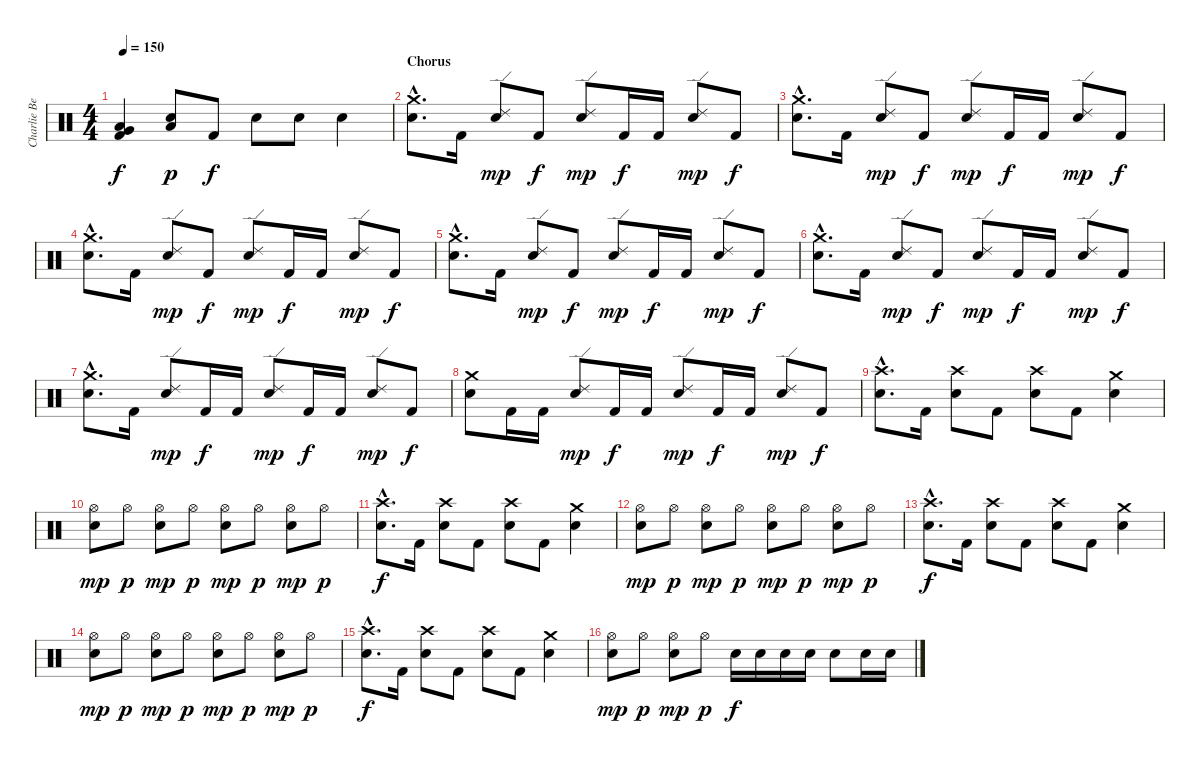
\track ("Charlie Benante" "Charlie Be") {instrument percussion}
\staff {score}
\articulation defaults
\ts (4 4)
\tempo 150
\clef neutral
\ks c
("Kick (hit) 2" "Low Tom (hit)" "Very Low Tom (hit)").4{dy f} ("Snare (hit) 2" "Low Tom (hit)").8{dy p} "Kick (hit) 2".8{dy f} "Snare (hit) 2".8 "Snare (hit) 2".8 "Snare (hit) 2".4 |
\section ("" "Chorus")
("Crash medium (hit)"{hac} "Snare (hit) 2"{hac}).8{d} "Kick (hit) 2".16 ("Ride (edge) 2" "Snare (hit) 2").8{dy mp} "Kick (hit) 2".8{dy f} ("Ride (edge) 2" "Snare (hit) 2").8{dy mp} "Kick (hit) 2".16{dy f} "Kick (hit) 2".16 ("Ride (edge) 2" "Snare (hit) 2").8{dy mp} "Kick (hit) 2".8{dy f} |
("Crash medium (hit)"{hac} "Snare (hit) 2"{hac}).8{d} "Kick (hit) 2".16 ("Ride (edge) 2" "Snare (hit) 2").8{dy mp} "Kick (hit) 2".8{dy f} ("Ride (edge) 2" "Snare (hit) 2").8{dy mp} "Kick (hit) 2".16{dy f} "Kick (hit) 2".16 ("Ride (edge) 2" "Snare (hit) 2").8{dy mp} "Kick (hit) 2".8{dy f} |
("Crash medium (hit)"{hac} "Snare (hit) 2"{hac}).8{d} "Kick (hit) 2".16 ("Ride (edge) 2" "Snare (hit) 2").8{dy mp} "Kick (hit) 2".8{dy f} ("Ride (edge) 2" "Snare (hit) 2").8{dy mp} "Kick (hit) 2".16{dy f} "Kick (hit) 2".16 ("Ride (edge) 2" "Snare (hit) 2").8{dy mp} "Kick (hit) 2".8{dy f} |
("Crash medium (hit)"{hac} "Snare (hit) 2"{hac}).8{d} "Kick (hit) 2".16 ("Ride (edge) 2" "Snare (hit) 2").8{dy mp} "Kick (hit) 2".8{dy f} ("Ride (edge) 2" "Snare (hit) 2").8{dy mp} "Kick (hit) 2".16{dy f} "Kick (hit) 2".16 ("Ride (edge) 2" "Snare (hit) 2").8{dy mp} "Kick (hit) 2".8{dy f} |
("Crash medium (hit)"{hac} "Snare (hit) 2"{hac}).8{d} "Kick (hit) 2".16 ("Ride (edge) 2" "Snare (hit) 2").8{dy mp} "Kick (hit) 2".8{dy f} ("Ride (edge) 2" "Snare (hit) 2").8{dy mp} "Kick (hit) 2".16{dy f} "Kick (hit) 2".16 ("Ride (edge) 2" "Snare (hit) 2").8{dy mp} "Kick (hit) 2".8{dy f} |
("Crash medium (hit)"{hac} "Snare (hit) 2"{hac}).8{d} "Kick (hit) 2".16 ("Ride (edge) 2" "Snare (hit) 2").8{dy mp} "Kick (hit) 2".16{dy f} "Kick (hit) 2".16 ("Ride (edge) 2" "Snare (hit) 2").8{dy mp} "Kick (hit) 2".16{dy f} "Kick (hit) 2".16 ("Ride (edge) 2" "Snare (hit) 2").8{dy mp} "Kick (hit) 2".8{dy f} |
("Crash medium (hit)" "Snare (hit) 2").8 "Kick (hit) 2".16 "Kick (hit) 2".16 ("Ride (edge) 2" "Snare (hit) 2").8{dy mp} "Kick (hit) 2".16{dy f} "Kick (hit) 2".16 ("Ride (edge) 2" "Snare (hit) 2").8{dy mp} "Kick (hit) 2".16{dy f} "Kick (hit) 2".16 ("Ride (edge) 2" "Snare (hit) 2").8{dy mp} "Kick (hit) 2".8{dy f} |
("Crash high (hit)"{hac} "Snare (hit) 2"{hac}).8{d} "Kick (hit) 2".16 ("Crash high (hit)" "Snare (hit) 2").8 "Kick (hit) 2".8 ("Crash high (hit)" "Snare (hit) 2").8 "Kick (hit) 2".8 ("Crash medium (hit)" "Snare (hit) 2").4 |
("Hi-Hat (open)" "Snare (hit) 2").8{dy mp} "Hi-Hat (open)".8{dy p} ("Hi-Hat (open)" "Snare (hit) 2").8{dy mp} "Hi-Hat (open)".8{dy p} ("Hi-Hat (open)" "Snare (hit) 2").8{dy mp} "Hi-Hat (open)".8{dy p} ("Hi-Hat (open)" "Snare (hit) 2").8{dy mp} "Hi-Hat (open)".8{dy p} |
("Crash high (hit)"{hac} "Snare (hit) 2"{hac}).8{d dy f} "Kick (hit) 2".16 ("Crash high (hit)" "Snare (hit) 2").8 "Kick (hit) 2".8 ("Crash high (hit)" "Snare (hit) 2").8 "Kick (hit) 2".8 ("Crash medium (hit)" "Snare (hit) 2").4 |
("Hi-Hat (open)" "Snare (hit) 2").8{dy mp} "Hi-Hat (open)".8{dy p} ("Hi-Hat (open)" "Snare (hit) 2").8{dy mp} "Hi-Hat (open)".8{dy p} ("Hi-Hat (open)" "Snare (hit) 2").8{dy mp} "Hi-Hat (open)".8{dy p} ("Hi-Hat (open)" "Snare (hit) 2").8{dy mp} "Hi-Hat (open)".8{dy p} |
("Crash high (hit)"{hac} "Snare (hit) 2"{hac}).8{d dy f} "Kick (hit) 2".16 ("Crash high (hit)" "Snare (hit) 2").8 "Kick (hit) 2".8 ("Crash high (hit)" "Snare (hit) 2").8 "Kick (hit) 2".8 ("Crash medium (hit)" "Snare (hit) 2").4 |
("Hi-Hat (open)" "Snare (hit) 2").8{dy mp} "Hi-Hat (open)".8{dy p} ("Hi-Hat (open)" "Snare (hit) 2").8{dy mp} "Hi-Hat (open)".8{dy p} ("Hi-Hat (open)" "Snare (hit) 2").8{dy mp} "Hi-Hat (open)".8{dy p} ("Hi-Hat (open)" "Snare (hit) 2").8{dy mp} "Hi-Hat (open)".8{dy p} |
("Crash high (hit)"{hac} "Snare (hit) 2"{hac}).8{d dy f} "Kick (hit) 2".16 ("Crash high (hit)" "Snare (hit) 2").8 "Kick (hit) 2".8 ("Crash high (hit)" "Snare (hit) 2").8 "Kick (hit) 2".8 ("Crash medium (hit)" "Snare (hit) 2").4 |
("Hi-Hat (open)" "Snare (hit) 2").8{dy mp} "Hi-Hat (open)".8{dy p} ("Hi-Hat (open)" "Snare (hit) 2").8{dy mp} "Hi-Hat (open)".8{dy p} "Snare (hit) 2".16{dy f} "Snare (hit) 2".16 "Snare (hit) 2".16 "Snare (hit) 2".16 "Snare (hit) 2".8 "Snare (hit) 2".16 "Snare (hit) 2".16
